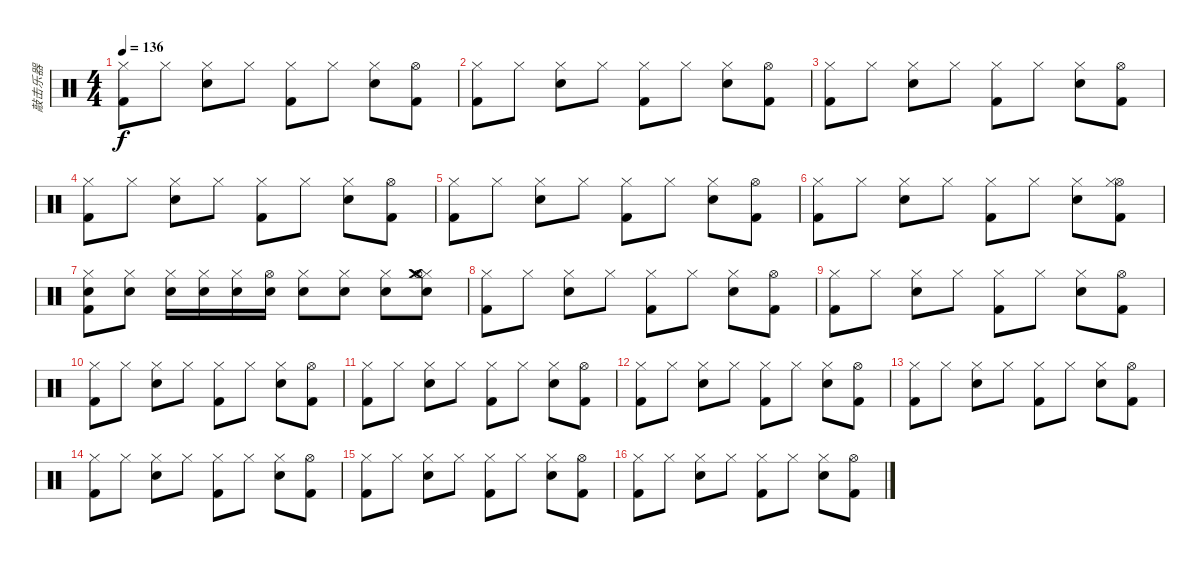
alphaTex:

\track ("敲击乐器" "敲击乐器") {instrument percussion}
\staff {score}
\articulation defaults
\ts (4 4)
\tempo 136
\clef neutral
\ks c
("Hi-Hat (closed)" "Kick (hit) 2").8{dy f} "Hi-Hat (closed)".8 ("Hi-Hat (closed)" "Electric Snare (hit)").8 "Hi-Hat (closed)".8 ("Hi-Hat (closed)" "Kick (hit) 2").8 "Hi-Hat (closed)".8 ("Hi-Hat (closed)" "Electric Snare (hit)").8 ("Hi-Hat (open)" "Kick (hit) 2").8 |
("Hi-Hat (closed)" "Kick (hit) 2").8 "Hi-Hat (closed)".8 ("Hi-Hat (closed)" "Electric Snare (hit)").8 "Hi-Hat (closed)".8 ("Hi-Hat (closed)" "Kick (hit) 2").8 "Hi-Hat (closed)".8 ("Hi-Hat (closed)" "Electric Snare (hit)").8 ("Hi-Hat (open)" "Kick (hit) 2").8 |
("Hi-Hat (closed)" "Kick (hit) 2").8 "Hi-Hat (closed)".8 ("Hi-Hat (closed)" "Electric Snare (hit)").8 "Hi-Hat (closed)".8 ("Hi-Hat (closed)" "Kick (hit) 2").8 "Hi-Hat (closed)".8 ("Hi-Hat (closed)" "Electric Snare (hit)").8 ("Hi-Hat (open)" "Kick (hit) 2").8 |
("Hi-Hat (closed)" "Kick (hit) 2").8 "Hi-Hat (closed)".8 ("Hi-Hat (closed)" "Electric Snare (hit)").8 "Hi-Hat (closed)".8 ("Hi-Hat (closed)" "Kick (hit) 2").8 "Hi-Hat (closed)".8 ("Hi-Hat (closed)" "Electric Snare (hit)").8 ("Hi-Hat (open)" "Kick (hit) 2").8 |
("Hi-Hat (closed)" "Kick (hit) 2").8 "Hi-Hat (closed)".8 ("Hi-Hat (closed)" "Electric Snare (hit)").8 "Hi-Hat (closed)".8 ("Hi-Hat (closed)" "Kick (hit) 2").8 "Hi-Hat (closed)".8 ("Hi-Hat (closed)" "Electric Snare (hit)").8 ("Hi-Hat (open)" "Kick (hit) 2").8 |
("Hi-Hat (closed)" "Kick (hit) 2").8 "Hi-Hat (closed)".8 ("Hi-Hat (closed)" "Electric Snare (hit)").8 "Hi-Hat (closed)".8 ("Hi-Hat (closed)" "Kick (hit) 2").8 "Hi-Hat (closed)".8 ("Hi-Hat (closed)" "Electric Snare (hit)").8 ("Hi-Hat (open)" "Hi-Hat (closed)" "Kick (hit) 2").8 |
("Hi-Hat (closed)" "Snare (hit) 2" "Kick (hit) 2").8 ("Hi-Hat (closed)" "Snare (hit) 2").8 ("Hi-Hat (closed)" "Snare (hit) 2").16 ("Hi-Hat (closed)" "Snare (hit) 2").16 ("Hi-Hat (closed)" "Snare (hit) 2").16 ("Hi-Hat (open)" "Snare (hit) 2").16 ("Hi-Hat (closed)" "Snare (hit) 2").8 ("Hi-Hat (closed)" "Snare (hit) 2").8 ("Hi-Hat (closed)" "Snare (hit) 2").8 ("Hi-Hat (closed)" "Snare (hit) 2" "Hi-Hat (open)" "Crash medium (hit)").8{volume 16} |
("Hi-Hat (closed)" "Kick (hit) 2").8 "Hi-Hat (closed)".8 ("Hi-Hat (closed)" "Electric Snare (hit)").8 "Hi-Hat (closed)".8 ("Hi-Hat (closed)" "Kick (hit) 2").8 "Hi-Hat (closed)".8 ("Hi-Hat (closed)" "Electric Snare (hit)").8 ("Hi-Hat (open)" "Kick (hit) 2").8 |
("Hi-Hat (closed)" "Kick (hit) 2").8{volume 13} "Hi-Hat (closed)".8 ("Hi-Hat (closed)" "Electric Snare (hit)").8 "Hi-Hat (closed)".8 ("Hi-Hat (closed)" "Kick (hit) 2").8 "Hi-Hat (closed)".8 ("Hi-Hat (closed)" "Electric Snare (hit)").8 ("Hi-Hat (open)" "Kick (hit) 2").8 |
("Hi-Hat (closed)" "Kick (hit) 2").8 "Hi-Hat (closed)".8 ("Hi-Hat (closed)" "Electric Snare (hit)").8 "Hi-Hat (closed)".8 ("Hi-Hat (closed)" "Kick (hit) 2").8 "Hi-Hat (closed)".8 ("Hi-Hat (closed)" "Electric Snare (hit)").8 ("Hi-Hat (open)" "Kick (hit) 2").8 |
("Hi-Hat (closed)" "Kick (hit) 2").8 "Hi-Hat (closed)".8 ("Hi-Hat (closed)" "Electric Snare (hit)").8 "Hi-Hat (closed)".8 ("Hi-Hat (closed)" "Kick (hit) 2").8 "Hi-Hat (closed)".8 ("Hi-Hat (closed)" "Electric Snare (hit)").8 ("Hi-Hat (open)" "Kick (hit) 2").8 |
("Hi-Hat (closed)" "Kick (hit) 2").8 "Hi-Hat (closed)".8 ("Hi-Hat (closed)" "Electric Snare (hit)").8 "Hi-Hat (closed)".8 ("Hi-Hat (closed)" "Kick (hit) 2").8 "Hi-Hat (closed)".8 ("Hi-Hat (closed)" "Electric Snare (hit)").8 ("Hi-Hat (open)" "Kick (hit) 2").8 |
("Hi-Hat (closed)" "Kick (hit) 2").8 "Hi-Hat (closed)".8 ("Hi-Hat (closed)" "Electric Snare (hit)").8 "Hi-Hat (closed)".8 ("Hi-Hat (closed)" "Kick (hit) 2").8 "Hi-Hat (closed)".8 ("Hi-Hat (closed)" "Electric Snare (hit)").8 ("Hi-Hat (open)" "Kick (hit) 2").8 |
("Hi-Hat (closed)" "Kick (hit) 2").8 "Hi-Hat (closed)".8 ("Hi-Hat (closed)" "Electric Snare (hit)").8 "Hi-Hat (closed)".8 ("Hi-Hat (closed)" "Kick (hit) 2").8 "Hi-Hat (closed)".8 ("Hi-Hat (closed)" "Electric Snare (hit)").8 ("Hi-Hat (open)" "Kick (hit) 2").8 |
("Hi-Hat (closed)" "Kick (hit) 2").8 "Hi-Hat (closed)".8 ("Hi-Hat (closed)" "Electric Snare (hit)").8 "Hi-Hat (closed)".8 ("Hi-Hat (closed)" "Kick (hit) 2").8 "Hi-Hat (closed)".8 ("Hi-Hat (closed)" "Electric Snare (hit)").8 ("Hi-Hat (open)" "Kick (hit) 2").8 |
("Hi-Hat (closed)" "Kick (hit) 2").8 "Hi-Hat (closed)".8 ("Hi-Hat (closed)" "Electric Snare (hit)").8 "Hi-Hat (closed)".8 ("Hi-Hat (closed)" "Kick (hit) 2").8 "Hi-Hat (closed)".8 ("Hi-Hat (closed)" "Electric Snare (hit)").8 ("Hi-Hat (open)" "Kick (hit) 2").8
